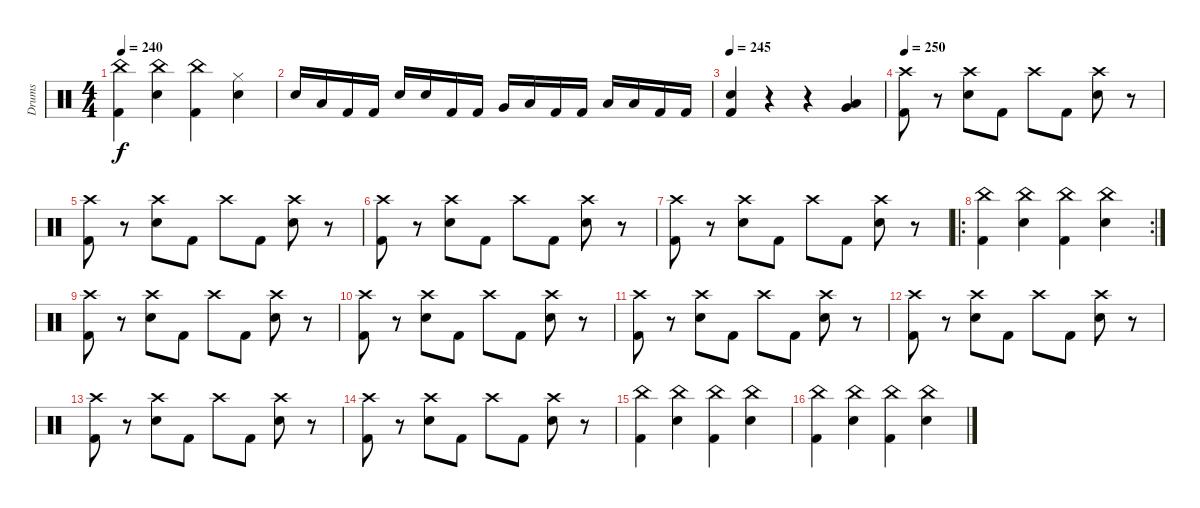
\track ("Drums" "Drums") {instrument percussion}
\staff {score}
\articulation defaults
\ts (4 4)
\tempo 240
\clef neutral
\ks c
("China (hit)" "Kick (hit) 2").4{dy f} ("China (hit)" "Snare (hit) 2").4 ("China (hit)" "Kick (hit) 2").4 ("Hi-Hat (closed)" "Snare (hit) 2").4 |
"Snare (hit) 2".16 "Low Tom (hit)".16 "Kick (hit) 2".16 "Kick (hit) 2".16 "Snare (hit) 2".16 "Snare (hit) 2".16 "Kick (hit) 2".16 "Kick (hit) 2".16 "Very Low Tom (hit)".16 "Low Tom (hit)".16 "Kick (hit) 2".16 "Kick (hit) 2".16 "Low Tom (hit)".16 "Low Floor Tom (hit)".16 "Kick (hit) 2".16 "Kick (hit) 2".16 |
\tempo 245
("Snare (hit) 2" "Kick (hit) 2").4 r.4 r.4 ("Low Floor Tom (hit)" "Very Low Tom (hit)").4 |
\tempo 250
("Crash high (hit)" "Kick (hit) 2").8 r.8 ("Crash high (hit)" "Snare (hit) 2").8 "Kick (hit) 2".8 "Crash high (hit)".8 "Kick (hit) 2".8 ("Crash high (hit)" "Snare (hit) 2").8 r.8 |
("Crash high (hit)" "Kick (hit) 2").8 r.8 ("Crash high (hit)" "Snare (hit) 2").8 "Kick (hit) 2".8 "Crash high (hit)".8 "Kick (hit) 2".8 ("Crash high (hit)" "Snare (hit) 2").8 r.8 |
("Crash high (hit)" "Kick (hit) 2").8 r.8 ("Crash high (hit)" "Snare (hit) 2").8 "Kick (hit) 2".8 "Crash high (hit)".8 "Kick (hit) 2".8 ("Crash high (hit)" "Snare (hit) 2").8 r.8 |
("Crash high (hit)" "Kick (hit) 2").8 r.8 ("Crash high (hit)" "Snare (hit) 2").8 "Kick (hit) 2".8 "Crash high (hit)".8 "Kick (hit) 2".8 ("Crash high (hit)" "Snare (hit) 2").8 r.8 |
\ro
\rc 2
("China (hit)" "Kick (hit) 2").4 ("China (hit)" "Snare (hit) 2").4 ("China (hit)" "Kick (hit) 2").4 ("China (hit)" "Snare (hit) 2").4 |
("Crash high (hit)" "Kick (hit) 2").8 r.8 ("Crash high (hit)" "Snare (hit) 2").8 "Kick (hit) 2".8 "Crash high (hit)".8 "Kick (hit) 2".8 ("Crash high (hit)" "Snare (hit) 2").8 r.8 |
("Crash high (hit)" "Kick (hit) 2").8 r.8 ("Crash high (hit)" "Snare (hit) 2").8 "Kick (hit) 2".8 "Crash high (hit)".8 "Kick (hit) 2".8 ("Crash high (hit)" "Snare (hit) 2").8 r.8 |
("Crash high (hit)" "Kick (hit) 2").8 r.8 ("Crash high (hit)" "Snare (hit) 2").8 "Kick (hit) 2".8 "Crash high (hit)".8 "Kick (hit) 2".8 ("Crash high (hit)" "Snare (hit) 2").8 r.8 |
("Crash high (hit)" "Kick (hit) 2").8 r.8 ("Crash high (hit)" "Snare (hit) 2").8 "Kick (hit) 2".8 "Crash high (hit)".8 "Kick (hit) 2".8 ("Crash high (hit)" "Snare (hit) 2").8 r.8 |
("Crash high (hit)" "Kick (hit) 2").8 r.8 ("Crash high (hit)" "Snare (hit) 2").8 "Kick (hit) 2".8 "Crash high (hit)".8 "Kick (hit) 2".8 ("Crash high (hit)" "Snare (hit) 2").8 r.8 |
("Crash high (hit)" "Kick (hit) 2").8 r.8 ("Crash high (hit)" "Snare (hit) 2").8 "Kick (hit) 2".8 "Crash high (hit)".8 "Kick (hit) 2".8 ("Crash high (hit)" "Snare (hit) 2").8 r.8 |
("China (hit)" "Kick (hit) 2").4 ("China (hit)" "Snare (hit) 2").4 ("China (hit)" "Kick (hit) 2").4 ("China (hit)" "Snare (hit) 2").4 |
("China (hit)" "Kick (hit) 2").4 ("China (hit)" "Snare (hit) 2").4 ("China (hit)" "Kick (hit) 2").4 ("China (hit)" "Snare (hit) 2").4
